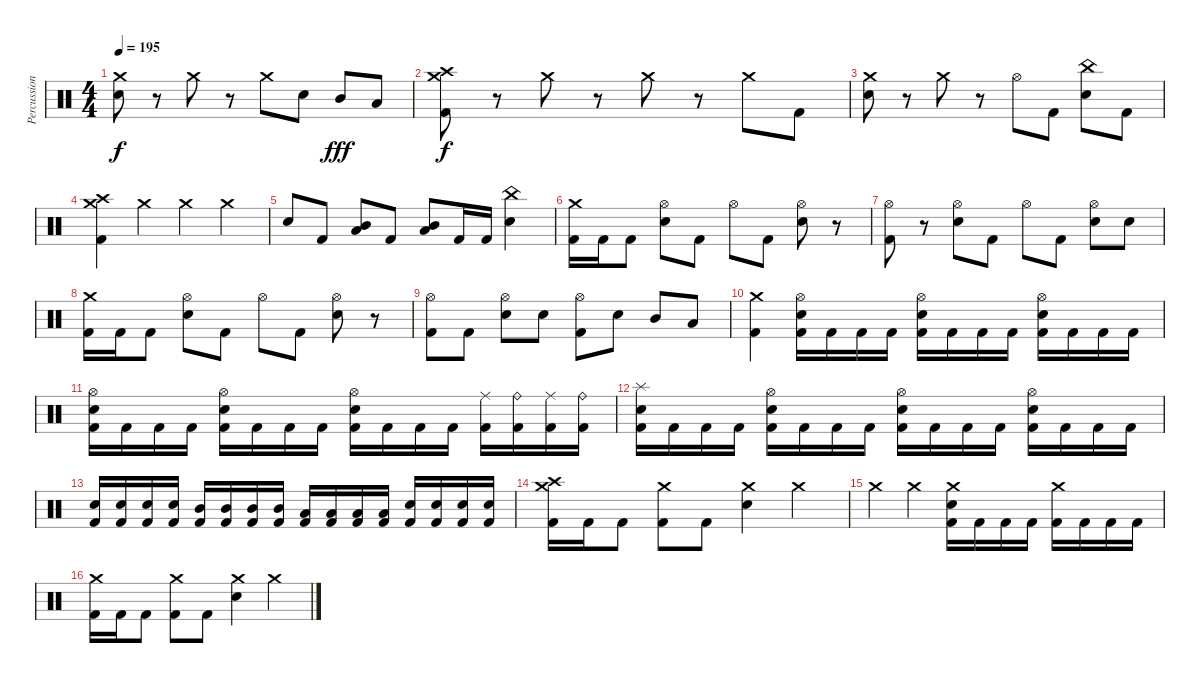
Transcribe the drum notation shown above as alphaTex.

\track ("Percussion" "Percussion") {instrument percussion}
\staff {score}
\articulation defaults
\ts (4 4)
\tempo 195
\clef neutral
\ks c
("Crash medium (hit)" "Electric Snare (hit)").8{dy f} r.8 "Crash medium (hit)".8 r.8 "Crash medium (hit)".8 "Electric Snare (hit)".8 "Mid Tom (hit)".8{dy fff} "Low Tom (hit)".8 |
("Crash medium (hit)" "Crash high (hit)" "Kick (hit) 2").8{dy f} r.8 "Crash medium (hit)".8 r.8 "Crash medium (hit)".8 r.8 "Crash medium (hit)".8 "Kick (hit) 2".8 |
("Crash medium (hit)" "Electric Snare (hit)").8 r.8 "Crash medium (hit)".8 r.8 "Hi-Hat (open)".8 "Kick (hit) 2".8 ("China (hit)" "Electric Snare (hit)").8 "Kick (hit) 2".8 |
("Crash medium (hit)" "Crash high (hit)" "Kick (hit) 2").4 "Crash medium (hit)".4 "Crash medium (hit)".4 "Crash medium (hit)".4 |
"Electric Snare (hit)".8 "Kick (hit) 2".8 ("Mid Tom (hit)" "Low Tom (hit)").8 "Kick (hit) 2".8 ("Mid Tom (hit)" "Low Tom (hit)").8 "Kick (hit) 2".16 "Kick (hit) 2".16 ("China (hit)" "Electric Snare (hit)").4 |
("Crash medium (hit)" "Kick (hit) 2").16 "Kick (hit) 2".16 "Kick (hit) 2".8 ("Hi-Hat (open)" "Electric Snare (hit)").8 "Kick (hit) 2".8 "Hi-Hat (open)".8 "Kick (hit) 2".8 ("Hi-Hat (open)" "Electric Snare (hit)").8 r.8 |
("Hi-Hat (open)" "Kick (hit) 2").8 r.8 ("Hi-Hat (open)" "Electric Snare (hit)").8 "Kick (hit) 2".8 "Hi-Hat (open)".8 "Kick (hit) 2".8 ("Hi-Hat (open)" "Electric Snare (hit)").8 "Electric Snare (hit)".8 |
("Crash medium (hit)" "Kick (hit) 2").16 "Kick (hit) 2".16 "Kick (hit) 2".8 ("Hi-Hat (open)" "Electric Snare (hit)").8 "Kick (hit) 2".8 "Hi-Hat (open)".8 "Kick (hit) 2".8 ("Hi-Hat (open)" "Electric Snare (hit)").8 r.8 |
("Hi-Hat (open)" "Kick (hit) 2").8 "Kick (hit) 2".8 ("Hi-Hat (open)" "Electric Snare (hit)").8 "Electric Snare (hit)".8 ("Hi-Hat (open)" "Kick (hit) 2").8 "Electric Snare (hit)".8 "Mid Tom (hit)".8 "Low Tom (hit)".8 |
("Crash medium (hit)" "Kick (hit) 2").4 ("Hi-Hat (open)" "Electric Snare (hit)" "Kick (hit) 2").16 "Kick (hit) 2".16 "Kick (hit) 2".16 "Kick (hit) 2".16 ("Hi-Hat (open)" "Electric Snare (hit)" "Kick (hit) 2").16 "Kick (hit) 2".16 "Kick (hit) 2".16 "Kick (hit) 2".16 ("Hi-Hat (open)" "Electric Snare (hit)" "Kick (hit) 2").16 "Kick (hit) 2".16 "Kick (hit) 2".16 "Kick (hit) 2".16 |
("Hi-Hat (open)" "Electric Snare (hit)" "Kick (hit) 2").16 "Kick (hit) 2".16 "Kick (hit) 2".16 "Kick (hit) 2".16 ("Hi-Hat (open)" "Electric Snare (hit)" "Kick (hit) 2").16 "Kick (hit) 2".16 "Kick (hit) 2".16 "Kick (hit) 2".16 ("Hi-Hat (open)" "Electric Snare (hit)" "Kick (hit) 2").16 "Kick (hit) 2".16 "Kick (hit) 2".16 "Kick (hit) 2".16 ("Ride (middle)" "Kick (hit) 2").16 ("Ride (bell)" "Kick (hit) 2").16 ("Ride (middle)" "Kick (hit) 2").16 ("Ride (bell)" "Kick (hit) 2").16 |
("Splash (hit)" "Electric Snare (hit)" "Kick (hit) 2").16 "Kick (hit) 2".16 "Kick (hit) 2".16 "Kick (hit) 2".16 ("Hi-Hat (open)" "Electric Snare (hit)" "Kick (hit) 2").16 "Kick (hit) 2".16 "Kick (hit) 2".16 "Kick (hit) 2".16 ("Hi-Hat (open)" "Electric Snare (hit)" "Kick (hit) 2").16 "Kick (hit) 2".16 "Kick (hit) 2".16 "Kick (hit) 2".16 ("Hi-Hat (open)" "Electric Snare (hit)" "Kick (hit) 2").16 "Kick (hit) 2".16 "Kick (hit) 2".16 "Kick (hit) 2".16 |
("Electric Snare (hit)" "Kick (hit) 2").16 ("Electric Snare (hit)" "Kick (hit) 2").16 ("Electric Snare (hit)" "Kick (hit) 2").16 ("Electric Snare (hit)" "Kick (hit) 2").16 ("Mid Tom (hit)" "Kick (hit) 2").16 ("Mid Tom (hit)" "Kick (hit) 2").16 ("Mid Tom (hit)" "Kick (hit) 2").16 ("Mid Tom (hit)" "Kick (hit) 2").16 ("Low Tom (hit)" "Kick (hit) 2").16 ("Low Tom (hit)" "Kick (hit) 2").16 ("Low Tom (hit)" "Kick (hit) 2").16 ("Low Tom (hit)" "Kick (hit) 2").16 ("Electric Snare (hit)" "Kick (hit) 2").16 ("Electric Snare (hit)" "Kick (hit) 2").16 ("Electric Snare (hit)" "Kick (hit) 2").16 ("Electric Snare (hit)" "Kick (hit) 2").16 |
("Crash medium (hit)" "Crash high (hit)" "Kick (hit) 2").16 "Kick (hit) 2".16 "Kick (hit) 2".8 ("Crash medium (hit)" "Kick (hit) 2").8 "Kick (hit) 2".8 ("Crash medium (hit)" "Electric Snare (hit)").4 "Crash medium (hit)".4 |
"Crash medium (hit)".4 "Crash medium (hit)".4 ("Crash medium (hit)" "Electric Snare (hit)" "Kick (hit) 2").16 "Kick (hit) 2".16 "Kick (hit) 2".16 "Kick (hit) 2".16 ("Crash medium (hit)" "Kick (hit) 2").16 "Kick (hit) 2".16 "Kick (hit) 2".16 "Kick (hit) 2".16 |
("Crash medium (hit)" "Kick (hit) 2").16 "Kick (hit) 2".16 "Kick (hit) 2".8 ("Crash medium (hit)" "Kick (hit) 2").8 "Kick (hit) 2".8 ("Crash medium (hit)" "Electric Snare (hit)").4 "Crash medium (hit)".4
